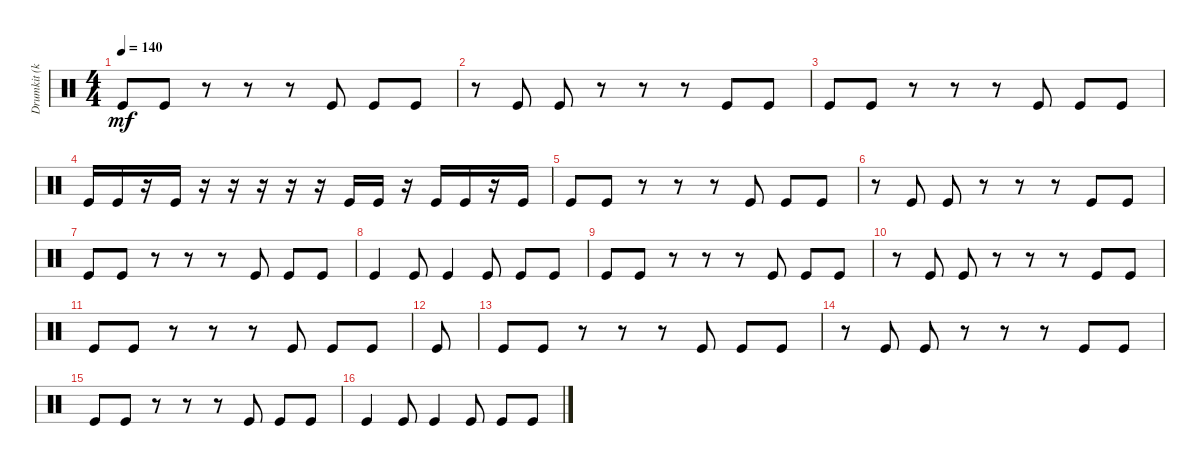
\track ("Drumkit (kicks)" "Drumkit (k") {instrument percussion}
\staff {score}
\articulation defaults
\ts (4 4)
\tempo 140
\clef neutral
\ks c "Kick (hit)".8{dy mf} "Kick (hit)".8
r.8 r.8 r.8 "Kick (hit)".8 "Kick (hit)".8 "Kick (hit)".8 |
r.8 "Kick (hit)".8 "Kick (hit)".8 r.8 r.8 r.8 "Kick (hit)".8 "Kick (hit)".8 |
"Kick (hit)".8 "Kick (hit)".8 r.8 r.8 r.8 "Kick (hit)".8 "Kick (hit)".8 "Kick (hit)".8 |
"Kick (hit)".16 "Kick (hit)".16 r.16 "Kick (hit)".16 r.16 r.16 r.16 r.16 r.16 "Kick (hit)".16 "Kick (hit)".16 r.16 "Kick (hit)".16 "Kick (hit)".16 r.16 "Kick (hit)".16 |
"Kick (hit)".8 "Kick (hit)".8 r.8 r.8 r.8 "Kick (hit)".8 "Kick (hit)".8 "Kick (hit)".8 |
r.8 "Kick (hit)".8 "Kick (hit)".8 r.8 r.8 r.8 "Kick (hit)".8 "Kick (hit)".8 |
"Kick (hit)".8 "Kick (hit)".8 r.8 r.8 r.8 "Kick (hit)".8 "Kick (hit)".8 "Kick (hit)".8 |
"Kick (hit)".4 "Kick (hit)".8 "Kick (hit)".4 "Kick (hit)".8 "Kick (hit)".8 "Kick (hit)".8 |
"Kick (hit)".8 "Kick (hit)".8 r.8 r.8 r.8 "Kick (hit)".8 "Kick (hit)".8 "Kick (hit)".8 |
r.8 "Kick (hit)".8 "Kick (hit)".8 r.8 r.8 r.8 "Kick (hit)".8 "Kick (hit)".8 |
"Kick (hit)".8 "Kick (hit)".8 r.8 r.8 r.8 "Kick (hit)".8 "Kick (hit)".8 "Kick (hit)".8 |
"Kick (hit)".8 |
"Kick (hit)".8 "Kick (hit)".8 r.8 r.8 r.8 "Kick (hit)".8 "Kick (hit)".8 "Kick (hit)".8 |
r.8 "Kick (hit)".8 "Kick (hit)".8 r.8 r.8 r.8 "Kick (hit)".8 "Kick (hit)".8 |
"Kick (hit)".8 "Kick (hit)".8 r.8 r.8 r.8 "Kick (hit)".8 "Kick (hit)".8 "Kick (hit)".8 |
"Kick (hit)".4 "Kick (hit)".8 "Kick (hit)".4 "Kick (hit)".8 "Kick (hit)".8 "Kick (hit)".8
